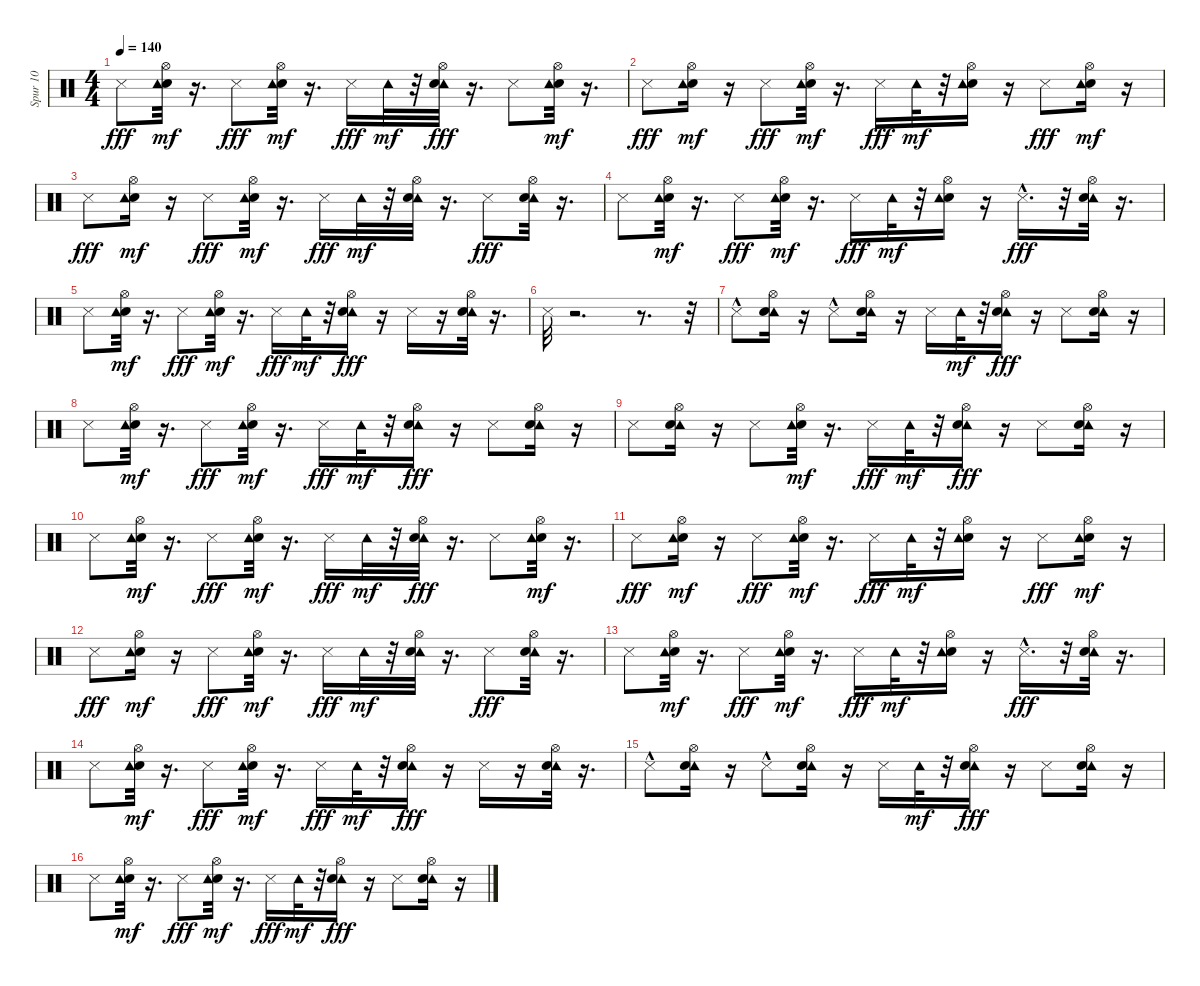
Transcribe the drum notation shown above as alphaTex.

\track ("Spur 10" "Spur 10") {instrument percussion}
\staff {score}
\articulation defaults
\ts (4 4)
\tempo 140
\clef neutral
\ks c "Metronome (hit)".8{dy fff}
("Snare (hit)" "Hi-Hat (open)" "Tambourine (hit)").32{dy mf} r.16{d} "Metronome (hit)".8{dy fff} ("Hi-Hat (open)" "Snare (hit)" "Tambourine (hit)").32{dy mf} r.16{d} "Metronome (hit)".16{dy fff} "Tambourine (hit)".32{dy mf} r.32 ("Tambourine (hit)" "Hi-Hat (open)" "Snare (hit)").32{dy fff} r.16{d} "Metronome (hit)".8 ("Hi-Hat (open)" "Snare (hit)" "Tambourine (hit)").32{dy mf} r.16{d} |
"Metronome (hit)".8{dy fff} ("Hi-Hat (open)" "Snare (hit)" "Tambourine (hit)").16{dy mf} r.16 "Metronome (hit)".8{dy fff} ("Hi-Hat (open)" "Snare (hit)" "Tambourine (hit)").32{dy mf} r.16{d} "Metronome (hit)".16{dy fff} "Tambourine (hit)".32{dy mf} r.32 ("Hi-Hat (open)" "Snare (hit)" "Tambourine (hit)").16 r.16 "Metronome (hit)".8{dy fff} ("Snare (hit)" "Hi-Hat (open)" "Tambourine (hit)").16{dy mf} r.16 |
"Metronome (hit)".8{dy fff} ("Hi-Hat (open)" "Snare (hit)" "Tambourine (hit)").16{dy mf} r.16 "Metronome (hit)".8{dy fff} ("Hi-Hat (open)" "Snare (hit)" "Tambourine (hit)").32{dy mf} r.16{d} "Metronome (hit)".16{dy fff} "Tambourine (hit)".32{dy mf} r.32 ("Tambourine (hit)" "Snare (hit)" "Hi-Hat (open)").32 r.16{d} "Metronome (hit)".8{dy fff} ("Tambourine (hit)" "Hi-Hat (open)" "Snare (hit)").32 r.16{d} |
"Metronome (hit)".8 ("Hi-Hat (open)" "Snare (hit)" "Tambourine (hit)").32{dy mf} r.16{d} "Metronome (hit)".8{dy fff} ("Hi-Hat (open)" "Snare (hit)" "Tambourine (hit)").32{dy mf} r.16{d} "Metronome (hit)".16{dy fff} "Tambourine (hit)".32{dy mf} r.32 ("Hi-Hat (open)" "Snare (hit)" "Tambourine (hit)").16 r.16 "Metronome (hit)"{hac}.16{d dy fff} r.32 ("Tambourine (hit)" "Hi-Hat (open)" "Snare (hit)").32 r.16{d} |
"Metronome (hit)".8 ("Hi-Hat (open)" "Snare (hit)" "Tambourine (hit)").32{dy mf} r.16{d} "Metronome (hit)".8{dy fff} ("Hi-Hat (open)" "Snare (hit)" "Tambourine (hit)").32{dy mf} r.16{d} "Metronome (hit)".16{dy fff} "Tambourine (hit)".32{dy mf} r.32 ("Tambourine (hit)" "Hi-Hat (open)" "Snare (hit)").16{dy fff} r.16 "Metronome (hit)".16 r.16 ("Tambourine (hit)" "Hi-Hat (open)" "Snare (hit)").32 r.16{d} |
"Metronome (hit)".32 r.2{d} r.8{d} r.32 |
"Metronome (hit)"{hac}.8 ("Tambourine (hit)" "Hi-Hat (open)" "Snare (hit)").16 r.16 "Metronome (hit)"{hac}.8 ("Tambourine (hit)" "Hi-Hat (open)" "Snare (hit)").16 r.16 "Metronome (hit)".16 "Tambourine (hit)".32{dy mf} r.32 ("Tambourine (hit)" "Hi-Hat (open)" "Snare (hit)").16{dy fff} r.16 "Metronome (hit)".8 ("Tambourine (hit)" "Hi-Hat (open)" "Snare (hit)").16 r.16 |
"Metronome (hit)".8 ("Hi-Hat (open)" "Snare (hit)" "Tambourine (hit)").32{dy mf} r.16{d} "Metronome (hit)".8{dy fff} ("Hi-Hat (open)" "Snare (hit)" "Tambourine (hit)").32{dy mf} r.16{d} "Metronome (hit)".16{dy fff} "Tambourine (hit)".32{dy mf} r.32 ("Tambourine (hit)" "Hi-Hat (open)" "Snare (hit)").16{dy fff} r.16 "Metronome (hit)".8 ("Tambourine (hit)" "Hi-Hat (open)" "Snare (hit)").16 r.16 |
"Metronome (hit)".8 ("Tambourine (hit)" "Hi-Hat (open)" "Snare (hit)").16 r.16 "Metronome (hit)".8 ("Hi-Hat (open)" "Snare (hit)" "Tambourine (hit)").32{dy mf} r.16{d} "Metronome (hit)".16{dy fff} "Tambourine (hit)".32{dy mf} r.32 ("Tambourine (hit)" "Hi-Hat (open)" "Snare (hit)").16{dy fff} r.16 "Metronome (hit)".8 ("Tambourine (hit)" "Hi-Hat (open)" "Snare (hit)").16 r.16 |
"Metronome (hit)".8 ("Snare (hit)" "Hi-Hat (open)" "Tambourine (hit)").32{dy mf} r.16{d} "Metronome (hit)".8{dy fff} ("Hi-Hat (open)" "Snare (hit)" "Tambourine (hit)").32{dy mf} r.16{d} "Metronome (hit)".16{dy fff} "Tambourine (hit)".32{dy mf} r.32 ("Tambourine (hit)" "Hi-Hat (open)" "Snare (hit)").32{dy fff} r.16{d} "Metronome (hit)".8 ("Hi-Hat (open)" "Snare (hit)" "Tambourine (hit)").32{dy mf} r.16{d} |
"Metronome (hit)".8{dy fff} ("Hi-Hat (open)" "Snare (hit)" "Tambourine (hit)").16{dy mf} r.16 "Metronome (hit)".8{dy fff} ("Hi-Hat (open)" "Snare (hit)" "Tambourine (hit)").32{dy mf} r.16{d} "Metronome (hit)".16{dy fff} "Tambourine (hit)".32{dy mf} r.32 ("Hi-Hat (open)" "Snare (hit)" "Tambourine (hit)").16 r.16 "Metronome (hit)".8{dy fff} ("Snare (hit)" "Hi-Hat (open)" "Tambourine (hit)").16{dy mf} r.16 |
"Metronome (hit)".8{dy fff} ("Hi-Hat (open)" "Snare (hit)" "Tambourine (hit)").16{dy mf} r.16 "Metronome (hit)".8{dy fff} ("Hi-Hat (open)" "Snare (hit)" "Tambourine (hit)").32{dy mf} r.16{d} "Metronome (hit)".16{dy fff} "Tambourine (hit)".32{dy mf} r.32 ("Tambourine (hit)" "Snare (hit)" "Hi-Hat (open)").32 r.16{d} "Metronome (hit)".8{dy fff} ("Tambourine (hit)" "Hi-Hat (open)" "Snare (hit)").32 r.16{d} |
"Metronome (hit)".8 ("Hi-Hat (open)" "Snare (hit)" "Tambourine (hit)").32{dy mf} r.16{d} "Metronome (hit)".8{dy fff} ("Hi-Hat (open)" "Snare (hit)" "Tambourine (hit)").32{dy mf} r.16{d} "Metronome (hit)".16{dy fff} "Tambourine (hit)".32{dy mf} r.32 ("Hi-Hat (open)" "Snare (hit)" "Tambourine (hit)").16 r.16 "Metronome (hit)"{hac}.16{d dy fff} r.32 ("Tambourine (hit)" "Hi-Hat (open)" "Snare (hit)").32 r.16{d} |
"Metronome (hit)".8 ("Hi-Hat (open)" "Snare (hit)" "Tambourine (hit)").32{dy mf} r.16{d} "Metronome (hit)".8{dy fff} ("Hi-Hat (open)" "Snare (hit)" "Tambourine (hit)").32{dy mf} r.16{d} "Metronome (hit)".16{dy fff} "Tambourine (hit)".32{dy mf} r.32 ("Tambourine (hit)" "Hi-Hat (open)" "Snare (hit)").16{dy fff} r.16 "Metronome (hit)".16 r.16 ("Tambourine (hit)" "Hi-Hat (open)" "Snare (hit)").32 r.16{d} |
"Metronome (hit)"{hac}.8 ("Tambourine (hit)" "Hi-Hat (open)" "Snare (hit)").16 r.16 "Metronome (hit)"{hac}.8 ("Tambourine (hit)" "Hi-Hat (open)" "Snare (hit)").16 r.16 "Metronome (hit)".16 "Tambourine (hit)".32{dy mf} r.32 ("Tambourine (hit)" "Hi-Hat (open)" "Snare (hit)").16{dy fff} r.16 "Metronome (hit)".8 ("Tambourine (hit)" "Hi-Hat (open)" "Snare (hit)").16 r.16 |
"Metronome (hit)".8 ("Hi-Hat (open)" "Snare (hit)" "Tambourine (hit)").32{dy mf} r.16{d} "Metronome (hit)".8{dy fff} ("Hi-Hat (open)" "Snare (hit)" "Tambourine (hit)").32{dy mf} r.16{d} "Metronome (hit)".16{dy fff} "Tambourine (hit)".32{dy mf} r.32 ("Tambourine (hit)" "Hi-Hat (open)" "Snare (hit)").16{dy fff} r.16 "Metronome (hit)".8 ("Tambourine (hit)" "Hi-Hat (open)" "Snare (hit)").16 r.16
